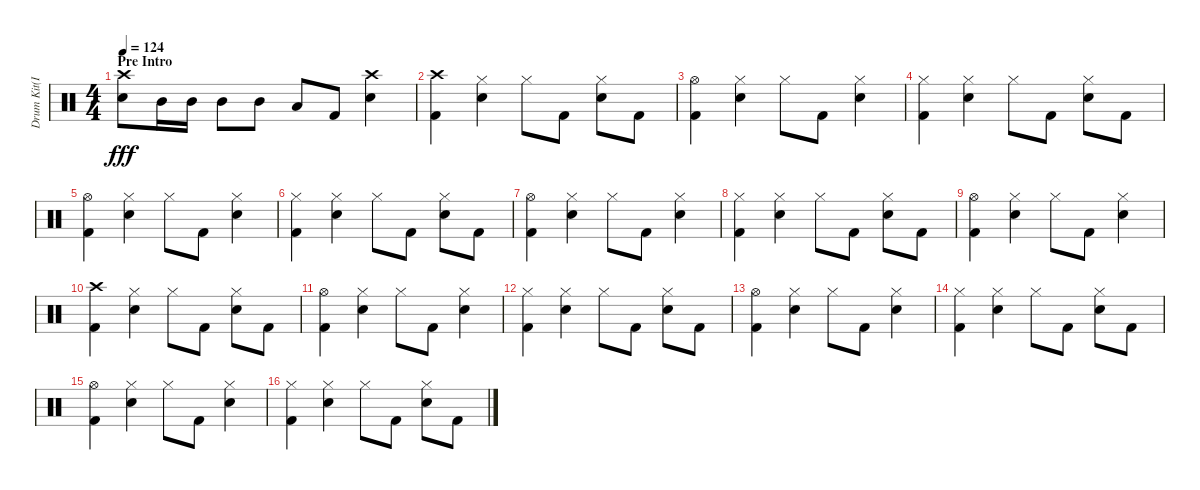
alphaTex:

\track ("Drum Kit(Inu)" "Drum Kit(I") {instrument percussion}
\staff {score}
\articulation defaults
\ts (4 4)
\section ("" "Pre Intro")
\tempo 124
\clef neutral
\ks c
("Crash high (hit)" "Electric Snare (hit)").8{dy fff} "Mid Tom (hit)".16 "Mid Tom (hit)".16 "Mid Tom (hit)".8 "Mid Tom (hit)".8 "Low Tom (hit)".8 "Kick (hit) 2".8 ("Crash high (hit)" "Electric Snare (hit)").4 |
("Crash high (hit)" "Kick (hit) 2").4 ("Hi-Hat (closed)" "Electric Snare (hit)").4 "Hi-Hat (closed)".8 "Kick (hit) 2".8 ("Hi-Hat (closed)" "Electric Snare (hit)").8 "Kick (hit) 2".8 |
("Hi-Hat (open)" "Kick (hit) 2").4 ("Hi-Hat (closed)" "Electric Snare (hit)").4 "Hi-Hat (closed)".8 "Kick (hit) 2".8 ("Electric Snare (hit)" "Hi-Hat (closed)").4 |
("Kick (hit) 2" "Hi-Hat (closed)").4 ("Hi-Hat (closed)" "Electric Snare (hit)").4 "Hi-Hat (closed)".8 "Kick (hit) 2".8 ("Electric Snare (hit)" "Hi-Hat (closed)").8 "Kick (hit) 2".8 |
("Hi-Hat (open)" "Kick (hit) 2").4 ("Hi-Hat (closed)" "Electric Snare (hit)").4 "Hi-Hat (closed)".8 "Kick (hit) 2".8 ("Electric Snare (hit)" "Hi-Hat (closed)").4 |
("Kick (hit) 2" "Hi-Hat (closed)").4 ("Hi-Hat (closed)" "Electric Snare (hit)").4 "Hi-Hat (closed)".8 "Kick (hit) 2".8 ("Electric Snare (hit)" "Hi-Hat (closed)").8 "Kick (hit) 2".8 |
("Hi-Hat (open)" "Kick (hit) 2").4 ("Hi-Hat (closed)" "Electric Snare (hit)").4 "Hi-Hat (closed)".8 "Kick (hit) 2".8 ("Electric Snare (hit)" "Hi-Hat (closed)").4 |
("Kick (hit) 2" "Hi-Hat (closed)").4 ("Hi-Hat (closed)" "Electric Snare (hit)").4 "Hi-Hat (closed)".8 "Kick (hit) 2".8 ("Electric Snare (hit)" "Hi-Hat (closed)").8 "Kick (hit) 2".8 |
("Hi-Hat (open)" "Kick (hit) 2").4 ("Hi-Hat (closed)" "Electric Snare (hit)").4 "Hi-Hat (closed)".8 "Kick (hit) 2".8 ("Electric Snare (hit)" "Hi-Hat (closed)").4 |
("Crash high (hit)" "Kick (hit) 2").4 ("Hi-Hat (closed)" "Electric Snare (hit)").4 "Hi-Hat (closed)".8 "Kick (hit) 2".8 ("Hi-Hat (closed)" "Electric Snare (hit)").8 "Kick (hit) 2".8 |
("Hi-Hat (open)" "Kick (hit) 2").4 ("Hi-Hat (closed)" "Electric Snare (hit)").4 "Hi-Hat (closed)".8 "Kick (hit) 2".8 ("Electric Snare (hit)" "Hi-Hat (closed)").4 |
("Kick (hit) 2" "Hi-Hat (closed)").4 ("Hi-Hat (closed)" "Electric Snare (hit)").4 "Hi-Hat (closed)".8 "Kick (hit) 2".8 ("Electric Snare (hit)" "Hi-Hat (closed)").8 "Kick (hit) 2".8 |
("Hi-Hat (open)" "Kick (hit) 2").4 ("Hi-Hat (closed)" "Electric Snare (hit)").4 "Hi-Hat (closed)".8 "Kick (hit) 2".8 ("Electric Snare (hit)" "Hi-Hat (closed)").4 |
("Kick (hit) 2" "Hi-Hat (closed)").4 ("Hi-Hat (closed)" "Electric Snare (hit)").4 "Hi-Hat (closed)".8 "Kick (hit) 2".8 ("Electric Snare (hit)" "Hi-Hat (closed)").8 "Kick (hit) 2".8 |
("Hi-Hat (open)" "Kick (hit) 2").4 ("Hi-Hat (closed)" "Electric Snare (hit)").4 "Hi-Hat (closed)".8 "Kick (hit) 2".8 ("Electric Snare (hit)" "Hi-Hat (closed)").4 |
("Kick (hit) 2" "Hi-Hat (closed)").4 ("Hi-Hat (closed)" "Electric Snare (hit)").4 "Hi-Hat (closed)".8 "Kick (hit) 2".8 ("Electric Snare (hit)" "Hi-Hat (closed)").8 "Kick (hit) 2".8
